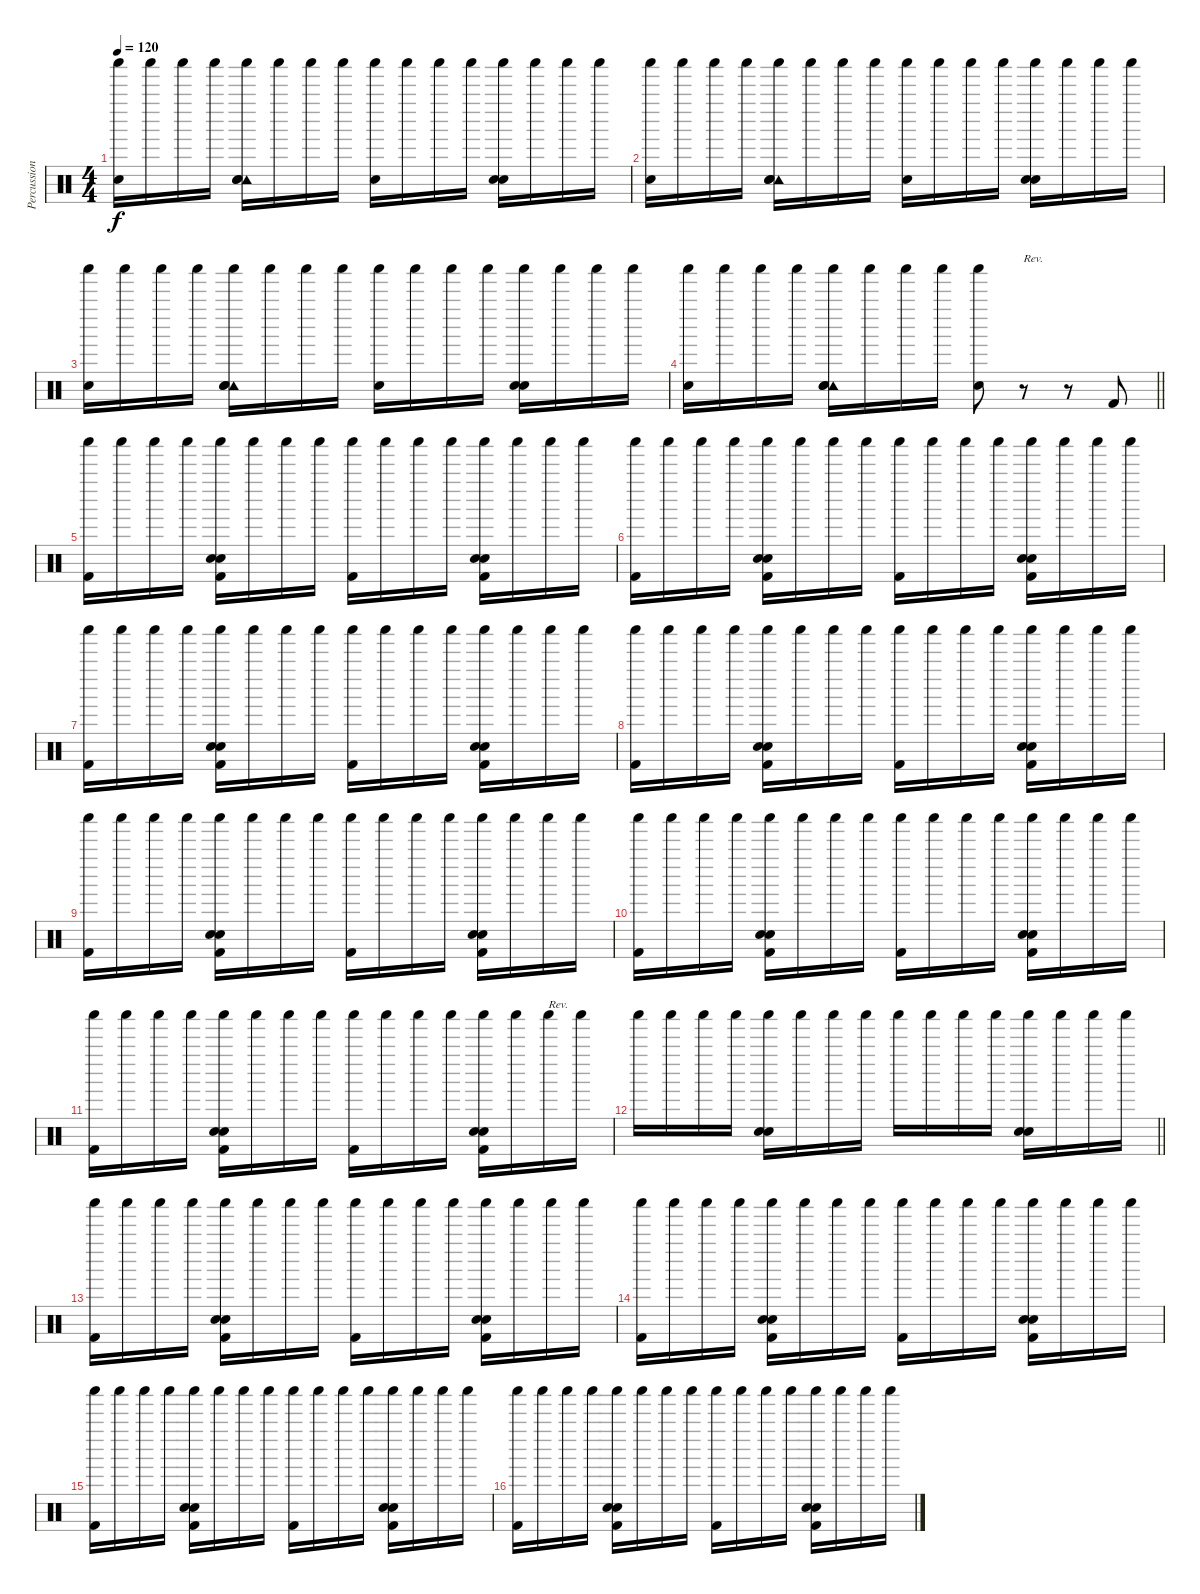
\track ("Percussion" "Percussion") {instrument percussion}
\staff {score}
\articulation defaults
\ts (4 4)
\tempo 120
\clef neutral
\ks c
("Shaker (hit)" "Electric Snare (hit)").16{dy f} "Shaker (hit)".16 "Shaker (hit)".16 "Shaker (hit)".16 ("Shaker (hit)" "Tambourine (hit)" "Hand Clap (hit)" "Electric Snare (hit)").16 "Shaker (hit)".16 "Shaker (hit)".16 "Shaker (hit)".16 ("Shaker (hit)" "Electric Snare (hit)").16 "Shaker (hit)".16 "Shaker (hit)".16 "Shaker (hit)".16 ("Shaker (hit)" "Hand Clap (hit)" "Electric Snare (hit)").16 "Shaker (hit)".16 "Shaker (hit)".16 "Shaker (hit)".16 |
("Shaker (hit)" "Electric Snare (hit)").16 "Shaker (hit)".16 "Shaker (hit)".16 "Shaker (hit)".16 ("Shaker (hit)" "Tambourine (hit)" "Hand Clap (hit)" "Electric Snare (hit)").16 "Shaker (hit)".16 "Shaker (hit)".16 "Shaker (hit)".16 ("Shaker (hit)" "Electric Snare (hit)").16 "Shaker (hit)".16 "Shaker (hit)".16 "Shaker (hit)".16 ("Shaker (hit)" "Hand Clap (hit)" "Electric Snare (hit)").16 "Shaker (hit)".16 "Shaker (hit)".16 "Shaker (hit)".16 |
("Shaker (hit)" "Electric Snare (hit)").16 "Shaker (hit)".16 "Shaker (hit)".16 "Shaker (hit)".16 ("Shaker (hit)" "Tambourine (hit)" "Hand Clap (hit)" "Electric Snare (hit)").16 "Shaker (hit)".16 "Shaker (hit)".16 "Shaker (hit)".16 ("Shaker (hit)" "Electric Snare (hit)").16 "Shaker (hit)".16 "Shaker (hit)".16 "Shaker (hit)".16 ("Shaker (hit)" "Hand Clap (hit)" "Electric Snare (hit)").16 "Shaker (hit)".16 "Shaker (hit)".16 "Shaker (hit)".16 |
\barLineRight lightlight
("Shaker (hit)" "Electric Snare (hit)").16 "Shaker (hit)".16 "Shaker (hit)".16 "Shaker (hit)".16 ("Shaker (hit)" "Tambourine (hit)" "Hand Clap (hit)" "Electric Snare (hit)").16 "Shaker (hit)".16 "Shaker (hit)".16 "Shaker (hit)".16 ("Shaker (hit)" "Electric Snare (hit)").8 r.8{txt "Rev."} r.8 "Kick (hit) 2".8 |
("Shaker (hit)" "Kick (hit) 2").16 "Shaker (hit)".16 "Shaker (hit)".16 "Shaker (hit)".16 ("Shaker (hit)" "Hand Clap (hit)" "Electric Snare (hit)" "Kick (hit) 2").16 "Shaker (hit)".16 "Shaker (hit)".16 "Shaker (hit)".16 ("Shaker (hit)" "Kick (hit) 2").16 "Shaker (hit)".16 "Shaker (hit)".16 "Shaker (hit)".16 ("Shaker (hit)" "Hand Clap (hit)" "Electric Snare (hit)" "Kick (hit) 2").16 "Shaker (hit)".16 "Shaker (hit)".16 "Shaker (hit)".16 |
("Shaker (hit)" "Kick (hit) 2").16 "Shaker (hit)".16 "Shaker (hit)".16 "Shaker (hit)".16 ("Shaker (hit)" "Hand Clap (hit)" "Electric Snare (hit)" "Kick (hit) 2").16 "Shaker (hit)".16 "Shaker (hit)".16 "Shaker (hit)".16 ("Shaker (hit)" "Kick (hit) 2").16 "Shaker (hit)".16 "Shaker (hit)".16 "Shaker (hit)".16 ("Shaker (hit)" "Hand Clap (hit)" "Electric Snare (hit)" "Kick (hit) 2").16 "Shaker (hit)".16 "Shaker (hit)".16 "Shaker (hit)".16 |
("Shaker (hit)" "Kick (hit) 2").16 "Shaker (hit)".16 "Shaker (hit)".16 "Shaker (hit)".16 ("Shaker (hit)" "Hand Clap (hit)" "Electric Snare (hit)" "Kick (hit) 2").16 "Shaker (hit)".16 "Shaker (hit)".16 "Shaker (hit)".16 ("Shaker (hit)" "Kick (hit) 2").16 "Shaker (hit)".16 "Shaker (hit)".16 "Shaker (hit)".16 ("Shaker (hit)" "Hand Clap (hit)" "Electric Snare (hit)" "Kick (hit) 2").16 "Shaker (hit)".16 "Shaker (hit)".16 "Shaker (hit)".16 |
("Shaker (hit)" "Kick (hit) 2").16 "Shaker (hit)".16 "Shaker (hit)".16 "Shaker (hit)".16 ("Shaker (hit)" "Hand Clap (hit)" "Electric Snare (hit)" "Kick (hit) 2").16 "Shaker (hit)".16 "Shaker (hit)".16 "Shaker (hit)".16 ("Shaker (hit)" "Kick (hit) 2").16 "Shaker (hit)".16 "Shaker (hit)".16 "Shaker (hit)".16 ("Shaker (hit)" "Hand Clap (hit)" "Electric Snare (hit)" "Kick (hit) 2").16 "Shaker (hit)".16 "Shaker (hit)".16 "Shaker (hit)".16 |
("Shaker (hit)" "Kick (hit) 2").16 "Shaker (hit)".16 "Shaker (hit)".16 "Shaker (hit)".16 ("Shaker (hit)" "Hand Clap (hit)" "Electric Snare (hit)" "Kick (hit) 2").16 "Shaker (hit)".16 "Shaker (hit)".16 "Shaker (hit)".16 ("Shaker (hit)" "Kick (hit) 2").16 "Shaker (hit)".16 "Shaker (hit)".16 "Shaker (hit)".16 ("Shaker (hit)" "Hand Clap (hit)" "Electric Snare (hit)" "Kick (hit) 2").16 "Shaker (hit)".16 "Shaker (hit)".16 "Shaker (hit)".16 |
("Shaker (hit)" "Kick (hit) 2").16 "Shaker (hit)".16 "Shaker (hit)".16 "Shaker (hit)".16 ("Shaker (hit)" "Hand Clap (hit)" "Electric Snare (hit)" "Kick (hit) 2").16 "Shaker (hit)".16 "Shaker (hit)".16 "Shaker (hit)".16 ("Shaker (hit)" "Kick (hit) 2").16 "Shaker (hit)".16 "Shaker (hit)".16 "Shaker (hit)".16 ("Shaker (hit)" "Hand Clap (hit)" "Electric Snare (hit)" "Kick (hit) 2").16 "Shaker (hit)".16 "Shaker (hit)".16 "Shaker (hit)".16 |
("Shaker (hit)" "Kick (hit) 2").16 "Shaker (hit)".16 "Shaker (hit)".16 "Shaker (hit)".16 ("Shaker (hit)" "Hand Clap (hit)" "Electric Snare (hit)" "Kick (hit) 2").16 "Shaker (hit)".16 "Shaker (hit)".16 "Shaker (hit)".16 ("Shaker (hit)" "Kick (hit) 2").16 "Shaker (hit)".16 "Shaker (hit)".16 "Shaker (hit)".16 ("Shaker (hit)" "Hand Clap (hit)" "Electric Snare (hit)" "Kick (hit) 2").16 "Shaker (hit)".16 "Shaker (hit)".16{txt "Rev."} "Shaker (hit)".16 |
\barLineRight lightlight "Shaker (hit)".16 "Shaker (hit)".16 "Shaker (hit)".16 "Shaker (hit)".16
("Shaker (hit)" "Hand Clap (hit)" "Electric Snare (hit)").16 "Shaker (hit)".16 "Shaker (hit)".16 "Shaker (hit)".16 "Shaker (hit)".16 "Shaker (hit)".16 "Shaker (hit)".16 "Shaker (hit)".16 ("Shaker (hit)" "Hand Clap (hit)" "Electric Snare (hit)").16 "Shaker (hit)".16 "Shaker (hit)".16 "Shaker (hit)".16 |
("Shaker (hit)" "Kick (hit) 2").16 "Shaker (hit)".16 "Shaker (hit)".16 "Shaker (hit)".16 ("Shaker (hit)" "Hand Clap (hit)" "Electric Snare (hit)" "Kick (hit) 2").16 "Shaker (hit)".16 "Shaker (hit)".16 "Shaker (hit)".16 ("Shaker (hit)" "Kick (hit) 2").16 "Shaker (hit)".16 "Shaker (hit)".16 "Shaker (hit)".16 ("Shaker (hit)" "Hand Clap (hit)" "Electric Snare (hit)" "Kick (hit) 2").16 "Shaker (hit)".16 "Shaker (hit)".16 "Shaker (hit)".16 |
("Shaker (hit)" "Kick (hit) 2").16 "Shaker (hit)".16 "Shaker (hit)".16 "Shaker (hit)".16 ("Shaker (hit)" "Hand Clap (hit)" "Electric Snare (hit)" "Kick (hit) 2").16 "Shaker (hit)".16 "Shaker (hit)".16 "Shaker (hit)".16 ("Shaker (hit)" "Kick (hit) 2").16 "Shaker (hit)".16 "Shaker (hit)".16 "Shaker (hit)".16 ("Shaker (hit)" "Hand Clap (hit)" "Electric Snare (hit)" "Kick (hit) 2").16 "Shaker (hit)".16 "Shaker (hit)".16 "Shaker (hit)".16 |
("Shaker (hit)" "Kick (hit) 2").16 "Shaker (hit)".16 "Shaker (hit)".16 "Shaker (hit)".16 ("Shaker (hit)" "Hand Clap (hit)" "Electric Snare (hit)" "Kick (hit) 2").16 "Shaker (hit)".16 "Shaker (hit)".16 "Shaker (hit)".16 ("Shaker (hit)" "Kick (hit) 2").16 "Shaker (hit)".16 "Shaker (hit)".16 "Shaker (hit)".16 ("Shaker (hit)" "Hand Clap (hit)" "Electric Snare (hit)" "Kick (hit) 2").16 "Shaker (hit)".16 "Shaker (hit)".16 "Shaker (hit)".16 |
("Shaker (hit)" "Kick (hit) 2").16 "Shaker (hit)".16 "Shaker (hit)".16 "Shaker (hit)".16 ("Shaker (hit)" "Hand Clap (hit)" "Electric Snare (hit)" "Kick (hit) 2").16 "Shaker (hit)".16 "Shaker (hit)".16 "Shaker (hit)".16 ("Shaker (hit)" "Kick (hit) 2").16 "Shaker (hit)".16 "Shaker (hit)".16 "Shaker (hit)".16 ("Shaker (hit)" "Hand Clap (hit)" "Electric Snare (hit)" "Kick (hit) 2").16 "Shaker (hit)".16 "Shaker (hit)".16 "Shaker (hit)".16
